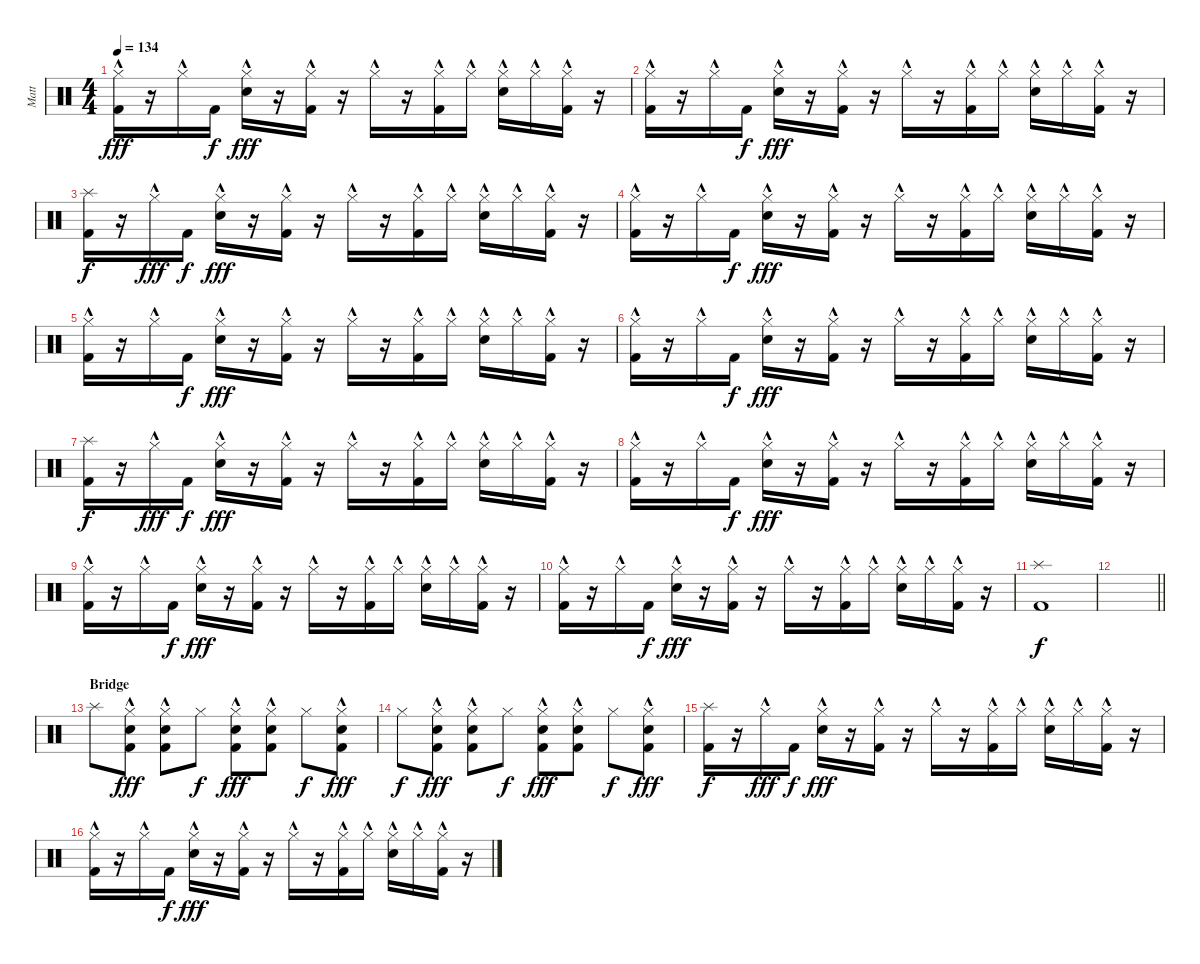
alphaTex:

\track ("Matt" "Matt") {instrument percussion}
\staff {score}
\articulation defaults
\ts (4 4)
\tempo 134
\clef neutral
\ks c
("Hi-Hat (closed)"{hac} "Kick (hit) 2").16{dy fff} r.16 "Hi-Hat (closed)"{hac}.16 "Kick (hit) 2".16{dy f} ("Hi-Hat (closed)"{hac} "Snare (hit) 2").16{dy fff} r.16 ("Hi-Hat (closed)"{hac} "Kick (hit) 2").16 r.16 "Hi-Hat (closed)"{hac}.16 r.16 ("Hi-Hat (closed)"{hac} "Kick (hit) 2").16 "Hi-Hat (closed)"{hac}.16 ("Hi-Hat (closed)"{hac} "Snare (hit) 2").16 "Hi-Hat (closed)"{hac}.16 ("Hi-Hat (closed)"{hac} "Kick (hit) 2").16 r.16 |
("Hi-Hat (closed)"{hac} "Kick (hit) 2").16 r.16 "Hi-Hat (closed)"{hac}.16 "Kick (hit) 2".16{dy f} ("Hi-Hat (closed)"{hac} "Snare (hit) 2").16{dy fff} r.16 ("Hi-Hat (closed)"{hac} "Kick (hit) 2").16 r.16 "Hi-Hat (closed)"{hac}.16 r.16 ("Hi-Hat (closed)"{hac} "Kick (hit) 2").16 "Hi-Hat (closed)"{hac}.16 ("Hi-Hat (closed)"{hac} "Snare (hit) 2").16 "Hi-Hat (closed)"{hac}.16 ("Hi-Hat (closed)"{hac} "Kick (hit) 2").16 r.16 |
("Splash (hit)" "Kick (hit) 2").16{dy f} r.16 "Hi-Hat (closed)"{hac}.16{dy fff} "Kick (hit) 2".16{dy f} ("Hi-Hat (closed)"{hac} "Snare (hit) 2").16{dy fff} r.16 ("Hi-Hat (closed)"{hac} "Kick (hit) 2").16 r.16 "Hi-Hat (closed)"{hac}.16 r.16 ("Hi-Hat (closed)"{hac} "Kick (hit) 2").16 "Hi-Hat (closed)"{hac}.16 ("Hi-Hat (closed)"{hac} "Snare (hit) 2").16 "Hi-Hat (closed)"{hac}.16 ("Hi-Hat (closed)"{hac} "Kick (hit) 2").16 r.16 |
("Hi-Hat (closed)"{hac} "Kick (hit) 2").16 r.16 "Hi-Hat (closed)"{hac}.16 "Kick (hit) 2".16{dy f} ("Hi-Hat (closed)"{hac} "Snare (hit) 2").16{dy fff} r.16 ("Hi-Hat (closed)"{hac} "Kick (hit) 2").16 r.16 "Hi-Hat (closed)"{hac}.16 r.16 ("Hi-Hat (closed)"{hac} "Kick (hit) 2").16 "Hi-Hat (closed)"{hac}.16 ("Hi-Hat (closed)"{hac} "Snare (hit) 2").16 "Hi-Hat (closed)"{hac}.16 ("Hi-Hat (closed)"{hac} "Kick (hit) 2").16 r.16 |
("Hi-Hat (closed)"{hac} "Kick (hit) 2").16 r.16 "Hi-Hat (closed)"{hac}.16 "Kick (hit) 2".16{dy f} ("Hi-Hat (closed)"{hac} "Snare (hit) 2").16{dy fff} r.16 ("Hi-Hat (closed)"{hac} "Kick (hit) 2").16 r.16 "Hi-Hat (closed)"{hac}.16 r.16 ("Hi-Hat (closed)"{hac} "Kick (hit) 2").16 "Hi-Hat (closed)"{hac}.16 ("Hi-Hat (closed)"{hac} "Snare (hit) 2").16 "Hi-Hat (closed)"{hac}.16 ("Hi-Hat (closed)"{hac} "Kick (hit) 2").16 r.16 |
("Hi-Hat (closed)"{hac} "Kick (hit) 2").16 r.16 "Hi-Hat (closed)"{hac}.16 "Kick (hit) 2".16{dy f} ("Hi-Hat (closed)"{hac} "Snare (hit) 2").16{dy fff} r.16 ("Hi-Hat (closed)"{hac} "Kick (hit) 2").16 r.16 "Hi-Hat (closed)"{hac}.16 r.16 ("Hi-Hat (closed)"{hac} "Kick (hit) 2").16 "Hi-Hat (closed)"{hac}.16 ("Hi-Hat (closed)"{hac} "Snare (hit) 2").16 "Hi-Hat (closed)"{hac}.16 ("Hi-Hat (closed)"{hac} "Kick (hit) 2").16 r.16 |
("Splash (hit)" "Kick (hit) 2").16{dy f} r.16 "Hi-Hat (closed)"{hac}.16{dy fff} "Kick (hit) 2".16{dy f} ("Hi-Hat (closed)"{hac} "Snare (hit) 2").16{dy fff} r.16 ("Hi-Hat (closed)"{hac} "Kick (hit) 2").16 r.16 "Hi-Hat (closed)"{hac}.16 r.16 ("Hi-Hat (closed)"{hac} "Kick (hit) 2").16 "Hi-Hat (closed)"{hac}.16 ("Hi-Hat (closed)"{hac} "Snare (hit) 2").16 "Hi-Hat (closed)"{hac}.16 ("Hi-Hat (closed)"{hac} "Kick (hit) 2").16 r.16 |
("Hi-Hat (closed)"{hac} "Kick (hit) 2").16 r.16 "Hi-Hat (closed)"{hac}.16 "Kick (hit) 2".16{dy f} ("Hi-Hat (closed)"{hac} "Snare (hit) 2").16{dy fff} r.16 ("Hi-Hat (closed)"{hac} "Kick (hit) 2").16 r.16 "Hi-Hat (closed)"{hac}.16 r.16 ("Hi-Hat (closed)"{hac} "Kick (hit) 2").16 "Hi-Hat (closed)"{hac}.16 ("Hi-Hat (closed)"{hac} "Snare (hit) 2").16 "Hi-Hat (closed)"{hac}.16 ("Hi-Hat (closed)"{hac} "Kick (hit) 2").16 r.16 |
("Hi-Hat (closed)"{hac} "Kick (hit) 2").16 r.16 "Hi-Hat (closed)"{hac}.16 "Kick (hit) 2".16{dy f} ("Hi-Hat (closed)"{hac} "Snare (hit) 2").16{dy fff} r.16 ("Hi-Hat (closed)"{hac} "Kick (hit) 2").16 r.16 "Hi-Hat (closed)"{hac}.16 r.16 ("Hi-Hat (closed)"{hac} "Kick (hit) 2").16 "Hi-Hat (closed)"{hac}.16 ("Hi-Hat (closed)"{hac} "Snare (hit) 2").16 "Hi-Hat (closed)"{hac}.16 ("Hi-Hat (closed)"{hac} "Kick (hit) 2").16 r.16 |
("Hi-Hat (closed)"{hac} "Kick (hit) 2").16 r.16 "Hi-Hat (closed)"{hac}.16 "Kick (hit) 2".16{dy f} ("Hi-Hat (closed)"{hac} "Snare (hit) 2").16{dy fff} r.16 ("Hi-Hat (closed)"{hac} "Kick (hit) 2").16 r.16 "Hi-Hat (closed)"{hac}.16 r.16 ("Hi-Hat (closed)"{hac} "Kick (hit) 2").16 "Hi-Hat (closed)"{hac}.16 ("Hi-Hat (closed)"{hac} "Snare (hit) 2").16 "Hi-Hat (closed)"{hac}.16 ("Hi-Hat (closed)"{hac} "Kick (hit) 2").16 r.16 |
("Splash (hit)" "Kick (hit) 2").1{dy f} |
\barLineRight lightlight
|
\section ("" "Bridge")
"Splash (hit)".8 ("Hi-Hat (closed)"{hac} "Snare (hit) 2" "Kick (hit) 2").8{dy fff} ("Hi-Hat (closed)"{hac} "Snare (hit) 2" "Kick (hit) 2").8 "Hi-Hat (closed)".8{dy f} ("Hi-Hat (closed)"{hac} "Snare (hit) 2" "Kick (hit) 2").8{dy fff} ("Hi-Hat (closed)"{hac} "Snare (hit) 2" "Kick (hit) 2").8 "Hi-Hat (closed)".8{dy f} ("Hi-Hat (closed)"{hac} "Snare (hit) 2" "Kick (hit) 2").8{dy fff} |
"Hi-Hat (closed)".8{dy f} ("Hi-Hat (closed)"{hac} "Snare (hit) 2" "Kick (hit) 2").8{dy fff} ("Hi-Hat (closed)"{hac} "Snare (hit) 2" "Kick (hit) 2").8 "Hi-Hat (closed)".8{dy f} ("Hi-Hat (closed)"{hac} "Snare (hit) 2" "Kick (hit) 2").8{dy fff} ("Hi-Hat (closed)"{hac} "Snare (hit) 2" "Kick (hit) 2").8 "Hi-Hat (closed)".8{dy f} ("Hi-Hat (closed)"{hac} "Snare (hit) 2" "Kick (hit) 2").8{dy fff} |
("Splash (hit)" "Kick (hit) 2").16{dy f} r.16 "Hi-Hat (closed)"{hac}.16{dy fff} "Kick (hit) 2".16{dy f} ("Hi-Hat (closed)"{hac} "Snare (hit) 2").16{dy fff} r.16 ("Hi-Hat (closed)"{hac} "Kick (hit) 2").16 r.16 "Hi-Hat (closed)"{hac}.16 r.16 ("Hi-Hat (closed)"{hac} "Kick (hit) 2").16 "Hi-Hat (closed)"{hac}.16 ("Hi-Hat (closed)"{hac} "Snare (hit) 2").16 "Hi-Hat (closed)"{hac}.16 ("Hi-Hat (closed)"{hac} "Kick (hit) 2").16 r.16 |
("Hi-Hat (closed)"{hac} "Kick (hit) 2").16 r.16 "Hi-Hat (closed)"{hac}.16 "Kick (hit) 2".16{dy f} ("Hi-Hat (closed)"{hac} "Snare (hit) 2").16{dy fff} r.16 ("Hi-Hat (closed)"{hac} "Kick (hit) 2").16 r.16 "Hi-Hat (closed)"{hac}.16 r.16 ("Hi-Hat (closed)"{hac} "Kick (hit) 2").16 "Hi-Hat (closed)"{hac}.16 ("Hi-Hat (closed)"{hac} "Snare (hit) 2").16 "Hi-Hat (closed)"{hac}.16 ("Hi-Hat (closed)"{hac} "Kick (hit) 2").16 r.16
